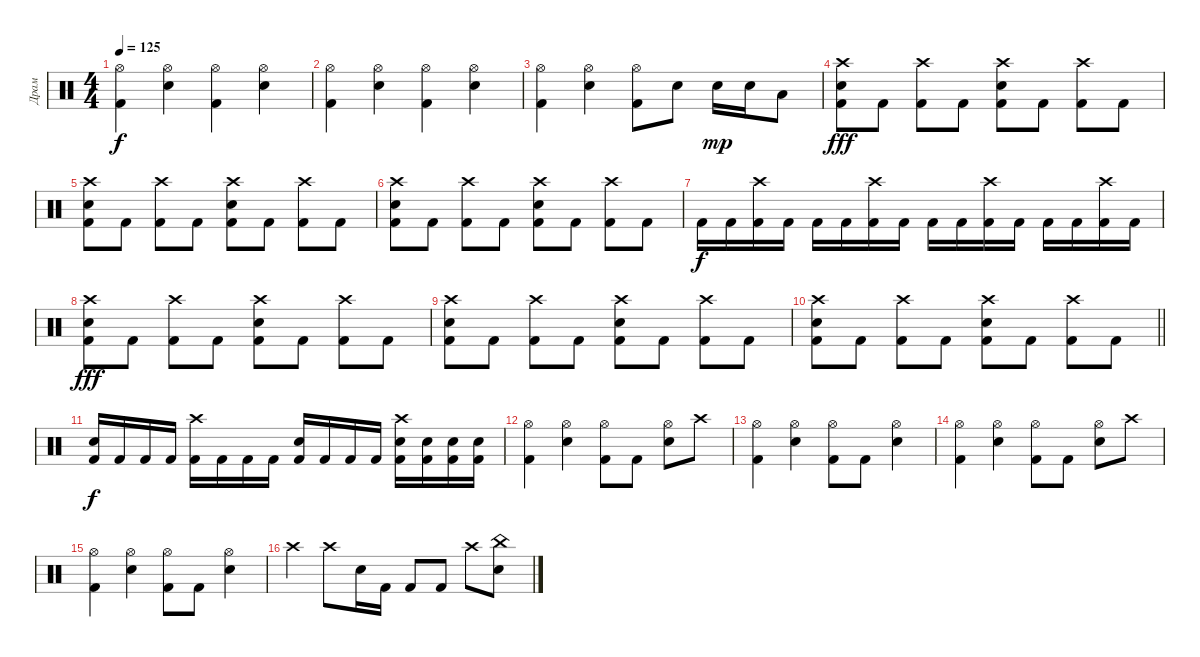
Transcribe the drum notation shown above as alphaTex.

\track ("Драм" "Драм") {instrument percussion}
\staff {score}
\articulation defaults
\ts (4 4)
\tempo 125
\clef neutral
\ks c
("Hi-Hat (open)" "Kick (hit) 2").4{dy f} ("Hi-Hat (open)" "Snare (hit) 2").4 ("Hi-Hat (open)" "Kick (hit) 2").4 ("Hi-Hat (open)" "Snare (hit) 2").4 |
("Hi-Hat (open)" "Kick (hit) 2").4 ("Hi-Hat (open)" "Snare (hit) 2").4 ("Hi-Hat (open)" "Kick (hit) 2").4 ("Hi-Hat (open)" "Snare (hit) 2").4 |
("Hi-Hat (open)" "Kick (hit) 2").4 ("Hi-Hat (open)" "Snare (hit) 2").4 ("Hi-Hat (open)" "Kick (hit) 2").8 "Snare (hit) 2".8 "Snare (hit) 2".16{dy mp} "Snare (hit) 2".16 "Low Floor Tom (hit)".8 |
("Crash high (hit)" "Snare (hit) 2" "Kick (hit) 2").8{dy fff} "Kick (hit) 2".8 ("Crash high (hit)" "Kick (hit) 2").8 "Kick (hit) 2".8 ("Crash high (hit)" "Snare (hit) 2" "Kick (hit) 2").8 "Kick (hit) 2".8 ("Crash high (hit)" "Kick (hit) 2").8 "Kick (hit) 2".8 |
("Crash high (hit)" "Snare (hit) 2" "Kick (hit) 2").8 "Kick (hit) 2".8 ("Crash high (hit)" "Kick (hit) 2").8 "Kick (hit) 2".8 ("Crash high (hit)" "Snare (hit) 2" "Kick (hit) 2").8 "Kick (hit) 2".8 ("Crash high (hit)" "Kick (hit) 2").8 "Kick (hit) 2".8 |
("Crash high (hit)" "Snare (hit) 2" "Kick (hit) 2").8 "Kick (hit) 2".8 ("Crash high (hit)" "Kick (hit) 2").8 "Kick (hit) 2".8 ("Crash high (hit)" "Snare (hit) 2" "Kick (hit) 2").8 "Kick (hit) 2".8 ("Crash high (hit)" "Kick (hit) 2").8 "Kick (hit) 2".8 |
"Kick (hit) 2".16{dy f} "Kick (hit) 2".16 ("Crash high (hit)" "Kick (hit) 2").16 "Kick (hit) 2".16 "Kick (hit) 2".16 "Kick (hit) 2".16 ("Crash high (hit)" "Kick (hit) 2").16 "Kick (hit) 2".16 "Kick (hit) 2".16 "Kick (hit) 2".16 ("Crash high (hit)" "Kick (hit) 2").16 "Kick (hit) 2".16 "Kick (hit) 2".16 "Kick (hit) 2".16 ("Crash high (hit)" "Kick (hit) 2").16 "Kick (hit) 2".16 |
("Crash high (hit)" "Snare (hit) 2" "Kick (hit) 2").8{dy fff} "Kick (hit) 2".8 ("Crash high (hit)" "Kick (hit) 2").8 "Kick (hit) 2".8 ("Crash high (hit)" "Snare (hit) 2" "Kick (hit) 2").8 "Kick (hit) 2".8 ("Crash high (hit)" "Kick (hit) 2").8 "Kick (hit) 2".8 |
("Crash high (hit)" "Snare (hit) 2" "Kick (hit) 2").8 "Kick (hit) 2".8 ("Crash high (hit)" "Kick (hit) 2").8 "Kick (hit) 2".8 ("Crash high (hit)" "Snare (hit) 2" "Kick (hit) 2").8 "Kick (hit) 2".8 ("Crash high (hit)" "Kick (hit) 2").8 "Kick (hit) 2".8 |
\barLineRight lightlight
("Crash high (hit)" "Snare (hit) 2" "Kick (hit) 2").8 "Kick (hit) 2".8 ("Crash high (hit)" "Kick (hit) 2").8 "Kick (hit) 2".8 ("Crash high (hit)" "Snare (hit) 2" "Kick (hit) 2").8 "Kick (hit) 2".8 ("Crash high (hit)" "Kick (hit) 2").8 "Kick (hit) 2".8 |
("Snare (hit) 2" "Kick (hit) 2").16{dy f} "Kick (hit) 2".16 "Kick (hit) 2".16 "Kick (hit) 2".16 ("Crash high (hit)" "Kick (hit) 2").16 "Kick (hit) 2".16 "Kick (hit) 2".16 "Kick (hit) 2".16 ("Snare (hit) 2" "Kick (hit) 2").16 "Kick (hit) 2".16 "Kick (hit) 2".16 "Kick (hit) 2".16 ("Crash high (hit)" "Snare (hit) 2" "Kick (hit) 2").16 ("Snare (hit) 2" "Kick (hit) 2").16 ("Snare (hit) 2" "Kick (hit) 2").16 ("Snare (hit) 2" "Kick (hit) 2").16 |
("Hi-Hat (open)" "Kick (hit) 2").4 ("Hi-Hat (open)" "Snare (hit) 2").4 ("Hi-Hat (open)" "Kick (hit) 2").8 "Kick (hit) 2".8 ("Hi-Hat (open)" "Snare (hit) 2").8 "Crash high (hit)".8 |
("Hi-Hat (open)" "Kick (hit) 2").4 ("Hi-Hat (open)" "Snare (hit) 2").4 ("Hi-Hat (open)" "Kick (hit) 2").8 "Kick (hit) 2".8 ("Hi-Hat (open)" "Snare (hit) 2").4 |
("Hi-Hat (open)" "Kick (hit) 2").4 ("Hi-Hat (open)" "Snare (hit) 2").4 ("Hi-Hat (open)" "Kick (hit) 2").8 "Kick (hit) 2".8 ("Hi-Hat (open)" "Snare (hit) 2").8 "Crash high (hit)".8 |
("Hi-Hat (open)" "Kick (hit) 2").4 ("Hi-Hat (open)" "Snare (hit) 2").4 ("Hi-Hat (open)" "Kick (hit) 2").8 "Kick (hit) 2".8 ("Hi-Hat (open)" "Snare (hit) 2").4 |
"Crash high (hit)".4 "Crash high (hit)".8 "Snare (hit) 2".16 "Kick (hit) 2".16 "Kick (hit) 2".8 "Kick (hit) 2".8 "Crash high (hit)".8 ("China (hit)" "Snare (hit) 2").8
